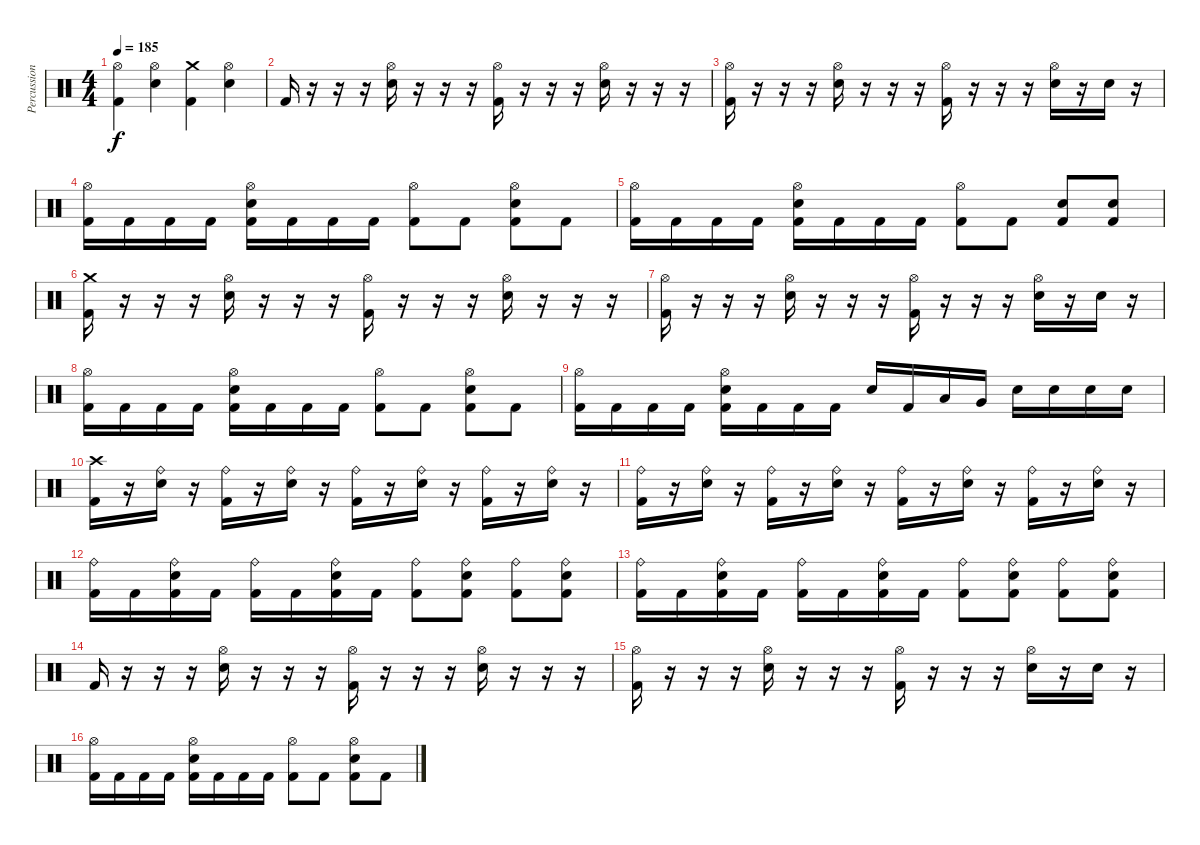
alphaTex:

\track ("Percussion" "Percussion") {instrument percussion}
\staff {score}
\articulation defaults
\ts (4 4)
\tempo 185
\clef neutral
\ks c
("Hi-Hat (open)" "Kick (hit) 2").4{dy f} ("Hi-Hat (open)" "Electric Snare (hit)").4 ("Crash medium (hit)" "Kick (hit) 2").4 ("Hi-Hat (open)" "Electric Snare (hit)").4 |
"Kick (hit) 2".16 r.16 r.16 r.16 ("Hi-Hat (open)" "Electric Snare (hit)").16 r.16 r.16 r.16 ("Hi-Hat (open)" "Kick (hit) 2").16 r.16 r.16 r.16 ("Hi-Hat (open)" "Electric Snare (hit)").16 r.16 r.16 r.16 |
("Hi-Hat (open)" "Kick (hit) 2").16 r.16 r.16 r.16 ("Hi-Hat (open)" "Electric Snare (hit)").16 r.16 r.16 r.16 ("Hi-Hat (open)" "Kick (hit) 2").16 r.16 r.16 r.16 ("Hi-Hat (open)" "Electric Snare (hit)").16 r.16 "Electric Snare (hit)".16 r.16 |
("Hi-Hat (open)" "Kick (hit) 2").16 "Kick (hit) 2".16 "Kick (hit) 2".16 "Kick (hit) 2".16 ("Hi-Hat (open)" "Electric Snare (hit)" "Kick (hit) 2").16 "Kick (hit) 2".16 "Kick (hit) 2".16 "Kick (hit) 2".16 ("Hi-Hat (open)" "Kick (hit) 2").8 "Kick (hit) 2".8 ("Hi-Hat (open)" "Electric Snare (hit)" "Kick (hit) 2").8 "Kick (hit) 2".8 |
("Hi-Hat (open)" "Kick (hit) 2").16 "Kick (hit) 2".16 "Kick (hit) 2".16 "Kick (hit) 2".16 ("Hi-Hat (open)" "Electric Snare (hit)" "Kick (hit) 2").16 "Kick (hit) 2".16 "Kick (hit) 2".16 "Kick (hit) 2".16 ("Hi-Hat (open)" "Kick (hit) 2").8 "Kick (hit) 2".8 ("Electric Snare (hit)" "Kick (hit) 2").8 ("Electric Snare (hit)" "Kick (hit) 2").8 |
("Crash medium (hit)" "Kick (hit) 2").16 r.16 r.16 r.16 ("Hi-Hat (open)" "Electric Snare (hit)").16 r.16 r.16 r.16 ("Hi-Hat (open)" "Kick (hit) 2").16 r.16 r.16 r.16 ("Hi-Hat (open)" "Electric Snare (hit)").16 r.16 r.16 r.16 |
("Hi-Hat (open)" "Kick (hit) 2").16 r.16 r.16 r.16 ("Hi-Hat (open)" "Electric Snare (hit)").16 r.16 r.16 r.16 ("Hi-Hat (open)" "Kick (hit) 2").16 r.16 r.16 r.16 ("Hi-Hat (open)" "Electric Snare (hit)").16 r.16 "Electric Snare (hit)".16 r.16 |
("Hi-Hat (open)" "Kick (hit) 2").16 "Kick (hit) 2".16 "Kick (hit) 2".16 "Kick (hit) 2".16 ("Hi-Hat (open)" "Electric Snare (hit)" "Kick (hit) 2").16 "Kick (hit) 2".16 "Kick (hit) 2".16 "Kick (hit) 2".16 ("Hi-Hat (open)" "Kick (hit) 2").8 "Kick (hit) 2".8 ("Hi-Hat (open)" "Electric Snare (hit)" "Kick (hit) 2").8 "Kick (hit) 2".8 |
("Hi-Hat (open)" "Kick (hit) 2").16 "Kick (hit) 2".16 "Kick (hit) 2".16 "Kick (hit) 2".16 ("Hi-Hat (open)" "Electric Snare (hit)" "Kick (hit) 2").16 "Kick (hit) 2".16 "Kick (hit) 2".16 "Kick (hit) 2".16 "Electric Snare (hit)".16 "Kick (hit) 2".16 "Low Tom (hit)".16 "Very Low Tom (hit)".16 "Electric Snare (hit)".16 "Electric Snare (hit)".16 "Electric Snare (hit)".16 "Electric Snare (hit)".16 |
("Crash high (hit)" "Kick (hit) 2").16 r.16 ("Ride (bell)" "Electric Snare (hit)").16 r.16 ("Ride (bell)" "Kick (hit) 2").16 r.16 ("Ride (bell)" "Electric Snare (hit)").16 r.16 ("Ride (bell)" "Kick (hit) 2").16 r.16 ("Ride (bell)" "Electric Snare (hit)").16 r.16 ("Ride (bell)" "Kick (hit) 2").16 r.16 ("Ride (bell)" "Electric Snare (hit)").16 r.16 |
("Ride (bell)" "Kick (hit) 2").16 r.16 ("Ride (bell)" "Electric Snare (hit)").16 r.16 ("Ride (bell)" "Kick (hit) 2").16 r.16 ("Ride (bell)" "Electric Snare (hit)").16 r.16 ("Ride (bell)" "Kick (hit) 2").16 r.16 ("Ride (bell)" "Electric Snare (hit)").16 r.16 ("Ride (bell)" "Kick (hit) 2").16 r.16 ("Ride (bell)" "Electric Snare (hit)").16 r.16 |
("Ride (bell)" "Kick (hit) 2").16 "Kick (hit) 2".16 ("Ride (bell)" "Electric Snare (hit)" "Kick (hit) 2").16 "Kick (hit) 2".16 ("Ride (bell)" "Kick (hit) 2").16 "Kick (hit) 2".16 ("Ride (bell)" "Electric Snare (hit)" "Kick (hit) 2").16 "Kick (hit) 2".16 ("Ride (bell)" "Kick (hit) 2").8 ("Ride (bell)" "Electric Snare (hit)" "Kick (hit) 2").8 ("Ride (bell)" "Kick (hit) 2").8 ("Ride (bell)" "Electric Snare (hit)" "Kick (hit) 2").8 |
("Ride (bell)" "Kick (hit) 2").16 "Kick (hit) 2".16 ("Ride (bell)" "Electric Snare (hit)" "Kick (hit) 2").16 "Kick (hit) 2".16 ("Ride (bell)" "Kick (hit) 2").16 "Kick (hit) 2".16 ("Ride (bell)" "Electric Snare (hit)" "Kick (hit) 2").16 "Kick (hit) 2".16 ("Ride (bell)" "Kick (hit) 2").8 ("Ride (bell)" "Electric Snare (hit)" "Kick (hit) 2").8 ("Ride (bell)" "Kick (hit) 2").8 ("Ride (bell)" "Electric Snare (hit)" "Kick (hit) 2").8 |
"Kick (hit) 2".16 r.16 r.16 r.16 ("Hi-Hat (open)" "Electric Snare (hit)").16 r.16 r.16 r.16 ("Hi-Hat (open)" "Kick (hit) 2").16 r.16 r.16 r.16 ("Hi-Hat (open)" "Electric Snare (hit)").16 r.16 r.16 r.16 |
("Hi-Hat (open)" "Kick (hit) 2").16 r.16 r.16 r.16 ("Hi-Hat (open)" "Electric Snare (hit)").16 r.16 r.16 r.16 ("Hi-Hat (open)" "Kick (hit) 2").16 r.16 r.16 r.16 ("Hi-Hat (open)" "Electric Snare (hit)").16 r.16 "Electric Snare (hit)".16 r.16 |
("Hi-Hat (open)" "Kick (hit) 2").16 "Kick (hit) 2".16 "Kick (hit) 2".16 "Kick (hit) 2".16 ("Hi-Hat (open)" "Electric Snare (hit)" "Kick (hit) 2").16 "Kick (hit) 2".16 "Kick (hit) 2".16 "Kick (hit) 2".16 ("Hi-Hat (open)" "Kick (hit) 2").8 "Kick (hit) 2".8 ("Hi-Hat (open)" "Electric Snare (hit)" "Kick (hit) 2").8 "Kick (hit) 2".8
